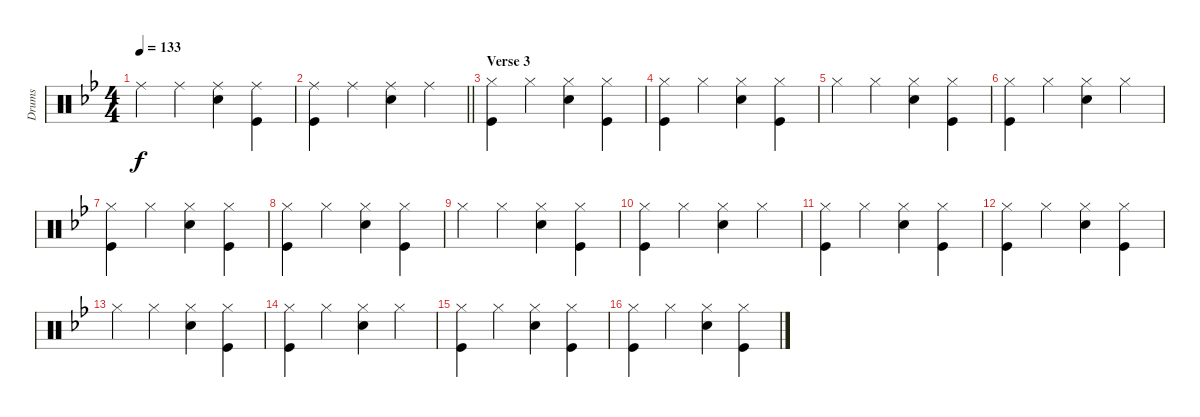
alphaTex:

\track ("Drums" "Drums") {instrument percussion}
\staff {score}
\articulation defaults
\ts (4 4)
\tempo 133
\clef neutral
\ks bb "Ride (middle)".4{dy f} "Ride (middle)".4
("Ride (middle)" "Snare (hit) 2").4 ("Ride (middle)" "Kick (hit)").4 |
\barLineRight lightlight
("Ride (middle)" "Kick (hit)").4 "Ride (middle)".4 ("Ride (middle)" "Snare (hit) 2").4 "Ride (middle)".4 |
\section ("" "Verse 3")
("Hi-Hat (closed)" "Kick (hit)").4 "Hi-Hat (closed)".4 ("Hi-Hat (closed)" "Snare (hit) 2").4 ("Hi-Hat (closed)" "Kick (hit)").4 |
("Hi-Hat (closed)" "Kick (hit)").4 "Hi-Hat (closed)".4 ("Hi-Hat (closed)" "Snare (hit) 2").4 ("Hi-Hat (closed)" "Kick (hit)").4 |
"Hi-Hat (closed)".4 "Hi-Hat (closed)".4 ("Hi-Hat (closed)" "Snare (hit) 2").4 ("Hi-Hat (closed)" "Kick (hit)").4 |
("Hi-Hat (closed)" "Kick (hit)").4 "Hi-Hat (closed)".4 ("Hi-Hat (closed)" "Snare (hit) 2").4 "Hi-Hat (closed)".4 |
("Hi-Hat (closed)" "Kick (hit)").4 "Hi-Hat (closed)".4 ("Hi-Hat (closed)" "Snare (hit) 2").4 ("Hi-Hat (closed)" "Kick (hit)").4 |
("Hi-Hat (closed)" "Kick (hit)").4 "Hi-Hat (closed)".4 ("Hi-Hat (closed)" "Snare (hit) 2").4 ("Hi-Hat (closed)" "Kick (hit)").4 |
"Hi-Hat (closed)".4 "Hi-Hat (closed)".4 ("Hi-Hat (closed)" "Snare (hit) 2").4 ("Hi-Hat (closed)" "Kick (hit)").4 |
("Hi-Hat (closed)" "Kick (hit)").4 "Hi-Hat (closed)".4 ("Hi-Hat (closed)" "Snare (hit) 2").4 "Hi-Hat (closed)".4 |
("Hi-Hat (closed)" "Kick (hit)").4 "Hi-Hat (closed)".4 ("Hi-Hat (closed)" "Snare (hit) 2").4 ("Hi-Hat (closed)" "Kick (hit)").4 |
("Hi-Hat (closed)" "Kick (hit)").4 "Hi-Hat (closed)".4 ("Hi-Hat (closed)" "Snare (hit) 2").4 ("Hi-Hat (closed)" "Kick (hit)").4 |
"Hi-Hat (closed)".4 "Hi-Hat (closed)".4 ("Hi-Hat (closed)" "Snare (hit) 2").4 ("Hi-Hat (closed)" "Kick (hit)").4 |
("Hi-Hat (closed)" "Kick (hit)").4 "Hi-Hat (closed)".4 ("Hi-Hat (closed)" "Snare (hit) 2").4 "Hi-Hat (closed)".4 |
("Hi-Hat (closed)" "Kick (hit)").4 "Hi-Hat (closed)".4 ("Hi-Hat (closed)" "Snare (hit) 2").4 ("Hi-Hat (closed)" "Kick (hit)").4 |
("Hi-Hat (closed)" "Kick (hit)").4 "Hi-Hat (closed)".4 ("Hi-Hat (closed)" "Snare (hit) 2").4 ("Hi-Hat (closed)" "Kick (hit)").4
